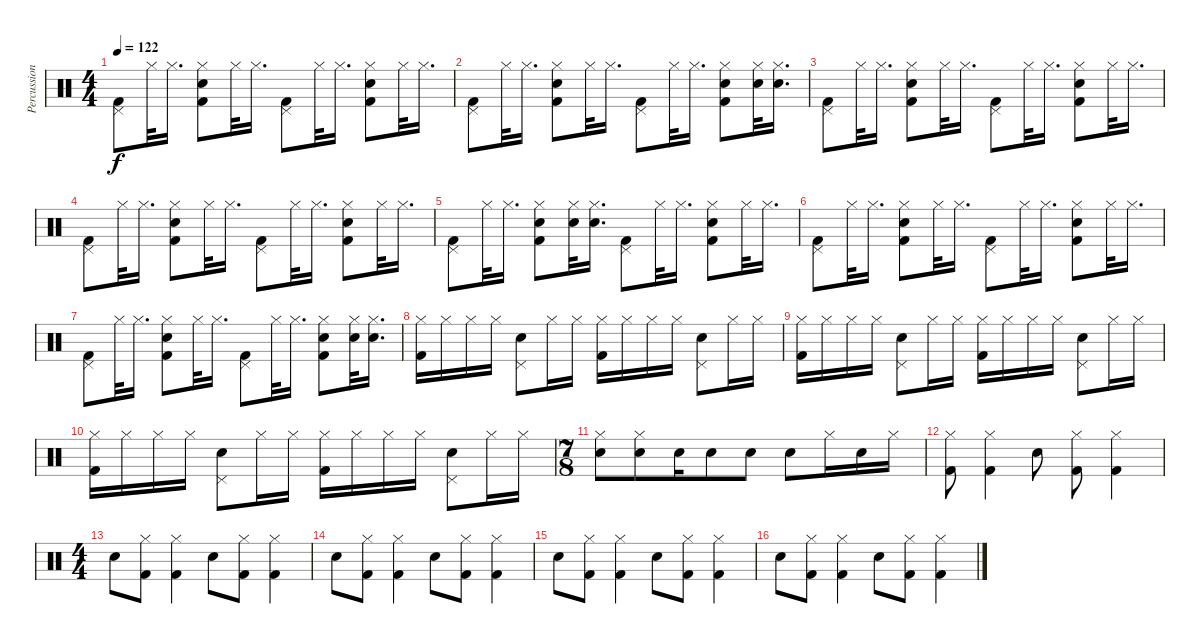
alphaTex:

\track ("Percussion" "Percussion") {instrument percussion}
\staff {score}
\articulation defaults
\ts (4 4)
\tempo 122
\clef neutral
\ks c
("Pedal Hi-Hat (hit)" "Kick (hit) 2").8{dy f} "Hi-Hat (closed)".32 "Hi-Hat (closed)".16{d} ("Hi-Hat (closed)" "Snare (hit) 2" "Kick (hit) 2").8 "Hi-Hat (closed)".32 "Hi-Hat (closed)".16{d} ("Pedal Hi-Hat (hit)" "Kick (hit) 2").8 "Hi-Hat (closed)".32 "Hi-Hat (closed)".16{d} ("Hi-Hat (closed)" "Snare (hit) 2" "Kick (hit) 2").8 "Hi-Hat (closed)".32 "Hi-Hat (closed)".16{d} |
("Pedal Hi-Hat (hit)" "Kick (hit) 2").8 "Hi-Hat (closed)".32 "Hi-Hat (closed)".16{d} ("Hi-Hat (closed)" "Snare (hit) 2" "Kick (hit) 2").8 "Hi-Hat (closed)".32 "Hi-Hat (closed)".16{d} ("Pedal Hi-Hat (hit)" "Kick (hit) 2").8 "Hi-Hat (closed)".32 "Hi-Hat (closed)".16{d} ("Hi-Hat (closed)" "Snare (hit) 2" "Kick (hit) 2").8 ("Hi-Hat (closed)" "Snare (hit) 2").32 ("Hi-Hat (closed)" "Snare (hit) 2").16{d} |
("Pedal Hi-Hat (hit)" "Kick (hit) 2").8 "Hi-Hat (closed)".32 "Hi-Hat (closed)".16{d} ("Hi-Hat (closed)" "Snare (hit) 2" "Kick (hit) 2").8 "Hi-Hat (closed)".32 "Hi-Hat (closed)".16{d} ("Pedal Hi-Hat (hit)" "Kick (hit) 2").8 "Hi-Hat (closed)".32 "Hi-Hat (closed)".16{d} ("Hi-Hat (closed)" "Snare (hit) 2" "Kick (hit) 2").8 "Hi-Hat (closed)".32 "Hi-Hat (closed)".16{d} |
("Pedal Hi-Hat (hit)" "Kick (hit) 2").8 "Hi-Hat (closed)".32 "Hi-Hat (closed)".16{d} ("Hi-Hat (closed)" "Snare (hit) 2" "Kick (hit) 2").8 "Hi-Hat (closed)".32 "Hi-Hat (closed)".16{d} ("Pedal Hi-Hat (hit)" "Kick (hit) 2").8 "Hi-Hat (closed)".32 "Hi-Hat (closed)".16{d} ("Hi-Hat (closed)" "Snare (hit) 2" "Kick (hit) 2").8 "Hi-Hat (closed)".32 "Hi-Hat (closed)".16{d} |
("Pedal Hi-Hat (hit)" "Kick (hit) 2").8 "Hi-Hat (closed)".32 "Hi-Hat (closed)".16{d} ("Hi-Hat (closed)" "Snare (hit) 2" "Kick (hit) 2").8 ("Hi-Hat (closed)" "Snare (hit) 2").32 ("Hi-Hat (closed)" "Snare (hit) 2").16{d} ("Pedal Hi-Hat (hit)" "Kick (hit) 2").8 "Hi-Hat (closed)".32 "Hi-Hat (closed)".16{d} ("Hi-Hat (closed)" "Snare (hit) 2" "Kick (hit) 2").8 "Hi-Hat (closed)".32 "Hi-Hat (closed)".16{d} |
("Pedal Hi-Hat (hit)" "Kick (hit) 2").8 "Hi-Hat (closed)".32 "Hi-Hat (closed)".16{d} ("Hi-Hat (closed)" "Snare (hit) 2" "Kick (hit) 2").8 "Hi-Hat (closed)".32 "Hi-Hat (closed)".16{d} ("Pedal Hi-Hat (hit)" "Kick (hit) 2").8 "Hi-Hat (closed)".32 "Hi-Hat (closed)".16{d} ("Hi-Hat (closed)" "Snare (hit) 2" "Kick (hit) 2").8 "Hi-Hat (closed)".32 "Hi-Hat (closed)".16{d} |
("Pedal Hi-Hat (hit)" "Kick (hit) 2").8 "Hi-Hat (closed)".32 "Hi-Hat (closed)".16{d} ("Hi-Hat (closed)" "Snare (hit) 2" "Kick (hit) 2").8 "Hi-Hat (closed)".32 "Hi-Hat (closed)".16{d} ("Pedal Hi-Hat (hit)" "Kick (hit) 2").8 "Hi-Hat (closed)".32 "Hi-Hat (closed)".16{d} ("Hi-Hat (closed)" "Snare (hit) 2" "Kick (hit) 2").8 ("Hi-Hat (closed)" "Snare (hit) 2").32 ("Hi-Hat (closed)" "Snare (hit) 2").16{d} |
("Hi-Hat (closed)" "Kick (hit) 2").16 "Hi-Hat (closed)".16 "Hi-Hat (closed)".16 "Hi-Hat (closed)".16 ("Pedal Hi-Hat (hit)" "Snare (hit) 2").8 "Hi-Hat (closed)".16 "Hi-Hat (closed)".16 ("Hi-Hat (closed)" "Kick (hit) 2").16 "Hi-Hat (closed)".16 "Hi-Hat (closed)".16 "Hi-Hat (closed)".16 ("Pedal Hi-Hat (hit)" "Snare (hit) 2").8 "Hi-Hat (closed)".16 "Hi-Hat (closed)".16 |
("Hi-Hat (closed)" "Kick (hit) 2").16 "Hi-Hat (closed)".16 "Hi-Hat (closed)".16 "Hi-Hat (closed)".16 ("Pedal Hi-Hat (hit)" "Snare (hit) 2").8 "Hi-Hat (closed)".16 "Hi-Hat (closed)".16 ("Hi-Hat (closed)" "Kick (hit) 2").16 "Hi-Hat (closed)".16 "Hi-Hat (closed)".16 "Hi-Hat (closed)".16 ("Pedal Hi-Hat (hit)" "Snare (hit) 2").8 "Hi-Hat (closed)".16 "Hi-Hat (closed)".16 |
("Hi-Hat (closed)" "Kick (hit) 2").16 "Hi-Hat (closed)".16 "Hi-Hat (closed)".16 "Hi-Hat (closed)".16 ("Pedal Hi-Hat (hit)" "Snare (hit) 2").8 "Hi-Hat (closed)".16 "Hi-Hat (closed)".16 ("Hi-Hat (closed)" "Kick (hit) 2").16 "Hi-Hat (closed)".16 "Hi-Hat (closed)".16 "Hi-Hat (closed)".16 ("Pedal Hi-Hat (hit)" "Snare (hit) 2").8 "Hi-Hat (closed)".16 "Hi-Hat (closed)".16 |
\ts (7 8)
("Hi-Hat (closed)" "Electric Snare (hit)").8 ("Hi-Hat (closed)" "Electric Snare (hit)").8 "Electric Snare (hit)".16 "Electric Snare (hit)".8 "Electric Snare (hit)".8 "Electric Snare (hit)".8 "Hi-Hat (closed)".16 "Electric Snare (hit)".16 "Hi-Hat (closed)".16 |
("Hi-Hat (closed)" "Kick (hit) 2").8 ("Hi-Hat (closed)" "Kick (hit) 2").4 "Snare (hit) 2".8 ("Hi-Hat (closed)" "Kick (hit) 2").8 ("Hi-Hat (closed)" "Kick (hit) 2").4 |
\ts (4 4)
"Snare (hit) 2".8 ("Hi-Hat (closed)" "Kick (hit) 2").8 ("Hi-Hat (closed)" "Kick (hit) 2").4 "Snare (hit) 2".8 ("Hi-Hat (closed)" "Kick (hit) 2").8 ("Hi-Hat (closed)" "Kick (hit) 2").4 |
"Snare (hit) 2".8 ("Hi-Hat (closed)" "Kick (hit) 2").8 ("Hi-Hat (closed)" "Kick (hit) 2").4 "Snare (hit) 2".8 ("Hi-Hat (closed)" "Kick (hit) 2").8 ("Hi-Hat (closed)" "Kick (hit) 2").4 |
"Snare (hit) 2".8 ("Hi-Hat (closed)" "Kick (hit) 2").8 ("Hi-Hat (closed)" "Kick (hit) 2").4 "Snare (hit) 2".8 ("Hi-Hat (closed)" "Kick (hit) 2").8 ("Hi-Hat (closed)" "Kick (hit) 2").4 |
"Snare (hit) 2".8 ("Hi-Hat (closed)" "Kick (hit) 2").8 ("Hi-Hat (closed)" "Kick (hit) 2").4 "Snare (hit) 2".8 ("Hi-Hat (closed)" "Kick (hit) 2").8 ("Hi-Hat (closed)" "Kick (hit) 2").4
